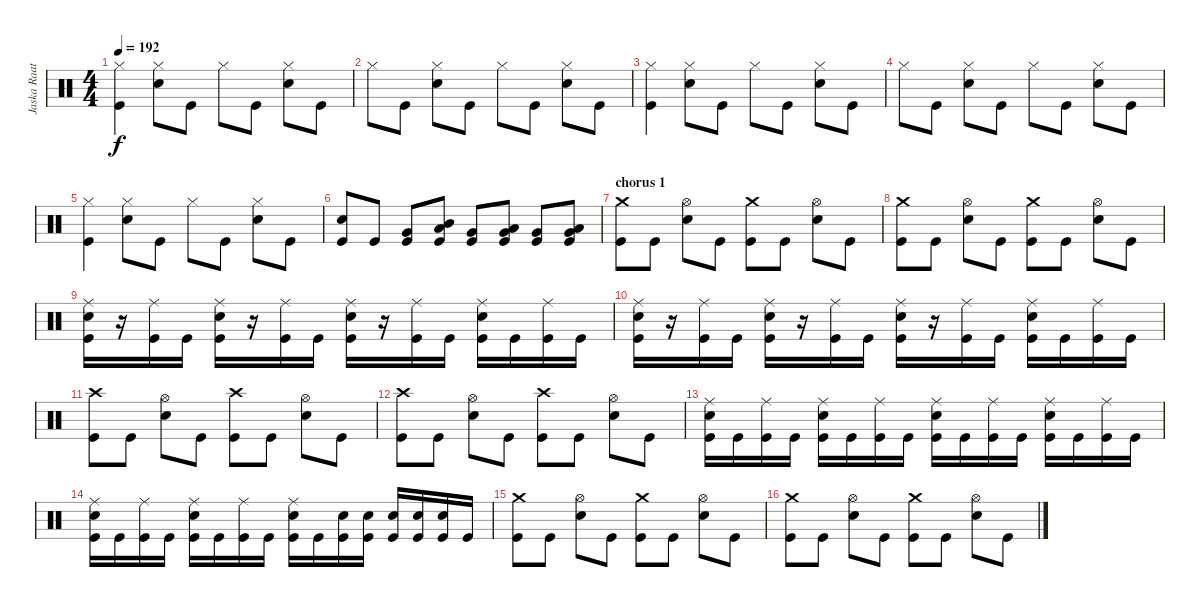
\track ("Jaska Raatikainen" "Jaska Raat") {instrument percussion}
\staff {score}
\articulation defaults
\ts (4 4)
\tempo 192
\clef neutral
\ks c
("Hi-Hat (closed)" "Kick (hit)").4{dy f} ("Hi-Hat (closed)" "Electric Snare (hit)").8 "Kick (hit)".8 "Hi-Hat (closed)".8 "Kick (hit)".8 ("Hi-Hat (closed)" "Electric Snare (hit)").8 "Kick (hit)".8 |
"Hi-Hat (closed)".8 "Kick (hit)".8 ("Hi-Hat (closed)" "Electric Snare (hit)").8 "Kick (hit)".8 "Hi-Hat (closed)".8 "Kick (hit)".8 ("Hi-Hat (closed)" "Electric Snare (hit)").8 "Kick (hit)".8 |
("Hi-Hat (closed)" "Kick (hit)").4 ("Hi-Hat (closed)" "Electric Snare (hit)").8 "Kick (hit)".8 "Hi-Hat (closed)".8 "Kick (hit)".8 ("Hi-Hat (closed)" "Electric Snare (hit)").8 "Kick (hit)".8 |
"Hi-Hat (closed)".8 "Kick (hit)".8 ("Hi-Hat (closed)" "Electric Snare (hit)").8 "Kick (hit)".8 "Hi-Hat (closed)".8 "Kick (hit)".8 ("Hi-Hat (closed)" "Electric Snare (hit)").8 "Kick (hit)".8 |
("Hi-Hat (closed)" "Kick (hit)").4 ("Hi-Hat (closed)" "Electric Snare (hit)").8 "Kick (hit)".8 "Hi-Hat (closed)".8 "Kick (hit)".8 ("Hi-Hat (closed)" "Electric Snare (hit)").8 "Kick (hit)".8 |
("Electric Snare (hit)" "Kick (hit)").8 "Kick (hit)".8 ("Very Low Tom (hit)" "Kick (hit)").8 ("Mid Tom (hit)" "Low Tom (hit)" "Kick (hit)").8 ("Very Low Tom (hit)" "Kick (hit)").8 ("Low Tom (hit)" "Very Low Tom (hit)" "Kick (hit)").8 ("Very Low Tom (hit)" "Kick (hit)").8 ("Very Low Tom (hit)" "Low Floor Tom (hit)" "Kick (hit)").8 |
\section ("" "chorus 1")
("Crash medium (hit)" "Kick (hit)").8 "Kick (hit)".8 ("Hi-Hat (open)" "Electric Snare (hit)").8 "Kick (hit)".8 ("Crash medium (hit)" "Kick (hit)").8 "Kick (hit)".8 ("Hi-Hat (open)" "Electric Snare (hit)").8 "Kick (hit)".8 |
("Crash medium (hit)" "Kick (hit)").8 "Kick (hit)".8 ("Hi-Hat (open)" "Electric Snare (hit)").8 "Kick (hit)".8 ("Crash medium (hit)" "Kick (hit)").8 "Kick (hit)".8 ("Hi-Hat (open)" "Electric Snare (hit)").8 "Kick (hit)".8 |
("Ride (middle)" "Electric Snare (hit)" "Kick (hit)").16 r.16 ("Ride (middle)" "Kick (hit)").16 "Kick (hit)".16 ("Ride (middle)" "Electric Snare (hit)" "Kick (hit)").16 r.16 ("Ride (middle)" "Kick (hit)").16 "Kick (hit)".16 ("Ride (middle)" "Electric Snare (hit)" "Kick (hit)").16 r.16 ("Ride (middle)" "Kick (hit)").16 "Kick (hit)".16 ("Ride (middle)" "Electric Snare (hit)" "Kick (hit)").16 "Kick (hit)".16 ("Ride (middle)" "Kick (hit)").16 "Kick (hit)".16 |
("Ride (middle)" "Electric Snare (hit)" "Kick (hit)").16 r.16 ("Ride (middle)" "Kick (hit)").16 "Kick (hit)".16 ("Ride (middle)" "Electric Snare (hit)" "Kick (hit)").16 r.16 ("Ride (middle)" "Kick (hit)").16 "Kick (hit)".16 ("Ride (middle)" "Electric Snare (hit)" "Kick (hit)").16 r.16 ("Ride (middle)" "Kick (hit)").16 "Kick (hit)".16 ("Ride (middle)" "Electric Snare (hit)" "Kick (hit)").16 "Kick (hit)".16 ("Ride (middle)" "Kick (hit)").16 "Kick (hit)".16 |
("Crash high (hit)" "Kick (hit)").8 "Kick (hit)".8 ("Hi-Hat (open)" "Electric Snare (hit)").8 "Kick (hit)".8 ("Crash high (hit)" "Kick (hit)").8 "Kick (hit)".8 ("Hi-Hat (open)" "Electric Snare (hit)").8 "Kick (hit)".8 |
("Crash high (hit)" "Kick (hit)").8 "Kick (hit)".8 ("Hi-Hat (open)" "Electric Snare (hit)").8 "Kick (hit)".8 ("Crash high (hit)" "Kick (hit)").8 "Kick (hit)".8 ("Hi-Hat (open)" "Electric Snare (hit)").8 "Kick (hit)".8 |
("Ride (middle)" "Electric Snare (hit)" "Kick (hit)").16 "Kick (hit)".16 ("Ride (middle)" "Kick (hit)").16 "Kick (hit)".16 ("Ride (middle)" "Electric Snare (hit)" "Kick (hit)").16 "Kick (hit)".16 ("Ride (middle)" "Kick (hit)").16 "Kick (hit)".16 ("Ride (middle)" "Electric Snare (hit)" "Kick (hit)").16 "Kick (hit)".16 ("Ride (middle)" "Kick (hit)").16 "Kick (hit)".16 ("Ride (middle)" "Electric Snare (hit)" "Kick (hit)").16 "Kick (hit)".16 ("Ride (middle)" "Kick (hit)").16 "Kick (hit)".16 |
("Ride (middle)" "Electric Snare (hit)" "Kick (hit)").16 "Kick (hit)".16 ("Ride (middle)" "Kick (hit)").16 "Kick (hit)".16 ("Ride (middle)" "Electric Snare (hit)" "Kick (hit)").16 "Kick (hit)".16 ("Ride (middle)" "Kick (hit)").16 "Kick (hit)".16 ("Ride (middle)" "Electric Snare (hit)" "Kick (hit)").16 "Kick (hit)".16 ("Electric Snare (hit)" "Kick (hit)").16 ("Electric Snare (hit)" "Kick (hit)").16 ("Electric Snare (hit)" "Kick (hit)").16 ("Electric Snare (hit)" "Kick (hit)").16 ("Electric Snare (hit)" "Kick (hit)").16 "Kick (hit)".16 |
("Crash medium (hit)" "Kick (hit)").8 "Kick (hit)".8 ("Hi-Hat (open)" "Electric Snare (hit)").8 "Kick (hit)".8 ("Crash medium (hit)" "Kick (hit)").8 "Kick (hit)".8 ("Hi-Hat (open)" "Electric Snare (hit)").8 "Kick (hit)".8 |
("Crash medium (hit)" "Kick (hit)").8 "Kick (hit)".8 ("Hi-Hat (open)" "Electric Snare (hit)").8 "Kick (hit)".8 ("Crash medium (hit)" "Kick (hit)").8 "Kick (hit)".8 ("Hi-Hat (open)" "Electric Snare (hit)").8 "Kick (hit)".8
